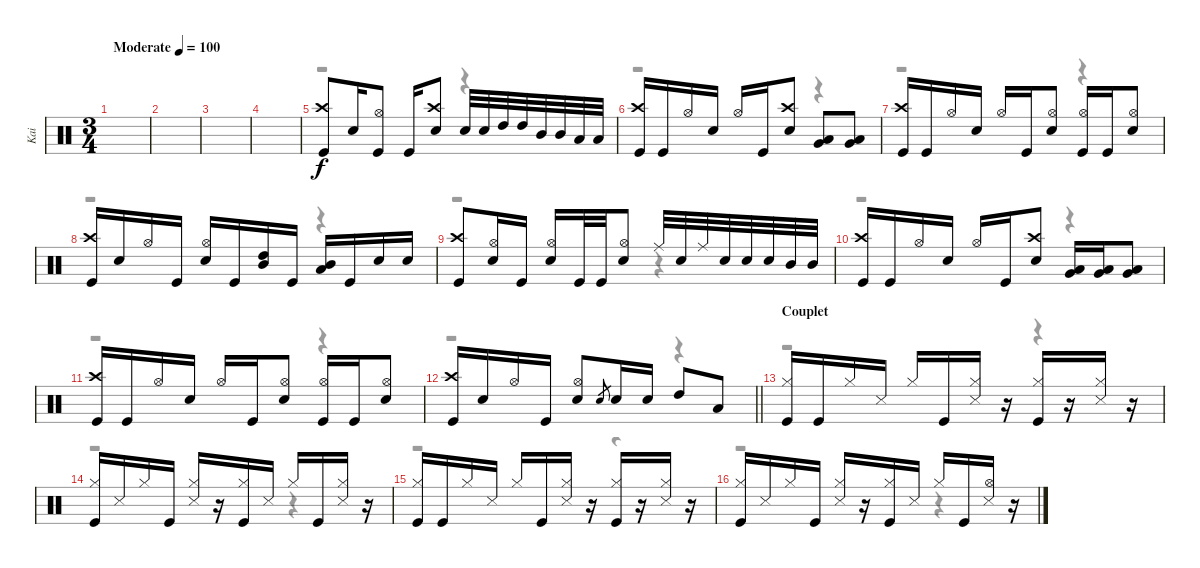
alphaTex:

\track ("Kai" "Kai") {instrument percussion}
\staff {score}
\articulation defaults
\voice
\ts (3 4)
\tempo (100 "Moderate")
\clef neutral
\ks c
|
|
|
|
("Crash high (hit)" "Kick (hit)").8 "Snare (hit) 2".16 ("Hi-Hat (open)" "Kick (hit)").8 "Kick (hit)".16 ("Crash high (hit)" "Snare (hit) 2").8 "Snare (hit) 2".32 "Snare (hit) 2".32 "High Tom (hit)".32 "High Tom (hit)".32 "Mid Tom (hit)".32 "Mid Tom (hit)".32 "Low Tom (hit)".32 "Low Tom (hit)".32 |
("Crash high (hit)" "Kick (hit)").16 "Kick (hit)".16 "Hi-Hat (open)".16 "Snare (hit) 2".16 "Hi-Hat (open)".16 "Kick (hit)".16 ("Crash high (hit)" "Snare (hit) 2").8 ("Low Tom (hit)" "Very Low Tom (hit)").8 ("Low Tom (hit)" "Very Low Tom (hit)").8 |
("Crash high (hit)" "Kick (hit)").16 "Kick (hit)".16 "Hi-Hat (open)".16 "Snare (hit) 2".16 "Hi-Hat (open)".16 "Kick (hit)".16 ("Hi-Hat (open)" "Snare (hit) 2").8 ("Hi-Hat (open)" "Kick (hit)").16 "Kick (hit)".16 ("Hi-Hat (open)" "Snare (hit) 2").8 |
("Crash high (hit)" "Kick (hit)").16 "Snare (hit) 2".16 "Hi-Hat (open)".16 "Kick (hit)".16 ("Hi-Hat (open)" "Snare (hit) 2").16 "Kick (hit)".16 ("Mid Tom (hit)" "High Tom (hit)").16 "Kick (hit)".16 ("Low Tom (hit)" "Mid Tom (hit)").16 "Kick (hit)".16 "Snare (hit) 2".16 "Snare (hit) 2".16 |
("Crash high (hit)" "Kick (hit)").8 ("Hi-Hat (open)" "Snare (hit) 2").16 "Kick (hit)".16 ("Snare (hit) 2" "Hi-Hat (open)").16 "Kick (hit)".32 "Kick (hit)".32 ("Hi-Hat (open)" "Snare (hit) 2").8 "Ride (middle)".32 "Snare (hit) 2".32 "Ride (middle)".32 "Snare (hit) 2".32 "Snare (hit) 2".32 "Snare (hit) 2".32 "Mid Tom (hit)".32 "Mid Tom (hit)".32 |
("Crash high (hit)" "Kick (hit)").16 "Kick (hit)".16 "Hi-Hat (open)".16 "Snare (hit) 2".16 "Hi-Hat (open)".16 "Kick (hit)".16 ("Crash high (hit)" "Snare (hit) 2").8 ("Low Tom (hit)" "Very Low Tom (hit)").16 ("Low Tom (hit)" "Very Low Tom (hit)").16 ("Low Tom (hit)" "Very Low Tom (hit)").8 |
("Crash high (hit)" "Kick (hit)").16 "Kick (hit)".16 "Hi-Hat (open)".16 "Snare (hit) 2".16 "Hi-Hat (open)".16 "Kick (hit)".16 ("Hi-Hat (open)" "Snare (hit) 2").8 ("Hi-Hat (open)" "Kick (hit)").16 "Kick (hit)".16 ("Hi-Hat (open)" "Snare (hit) 2").8 |
\barLineRight lightlight
("Crash high (hit)" "Kick (hit)").16 "Snare (hit) 2".16 "Hi-Hat (open)".16 "Kick (hit)".16 ("Hi-Hat (open)" "Snare (hit) 2").8 "Snare (hit) 2".8{gr} "Snare (hit) 2".16 "Snare (hit) 2".16 "High Tom (hit)".8 "Low Tom (hit)".8 |
\section ("" "Couplet")
("Hi-Hat (closed)" "Kick (hit)").16 "Kick (hit)".16 "Hi-Hat (closed)".16 "Snare (side stick) 3".16 "Hi-Hat (closed)".16 "Kick (hit)".16 ("Hi-Hat (closed)" "Snare (side stick) 3").16 r.16 ("Hi-Hat (closed)" "Kick (hit)").16 r.16 ("Hi-Hat (closed)" "Snare (side stick) 3").16 r.16 |
("Hi-Hat (closed)" "Kick (hit)").16 "Snare (side stick) 3".16 "Hi-Hat (closed)".16 "Kick (hit)".16 ("Hi-Hat (closed)" "Snare (side stick) 3").16 r.16 ("Hi-Hat (closed)" "Kick (hit)").16 "Snare (side stick) 3".16 "Hi-Hat (closed)".16 "Kick (hit)".16 ("Hi-Hat (closed)" "Snare (side stick) 3").16 r.16 |
("Hi-Hat (closed)" "Kick (hit)").16 "Kick (hit)".16 "Hi-Hat (closed)".16 "Snare (side stick) 3".16 "Hi-Hat (closed)".16 "Kick (hit)".16 ("Hi-Hat (closed)" "Snare (side stick) 3").16 r.16 ("Hi-Hat (closed)" "Kick (hit)").16 r.16 ("Hi-Hat (closed)" "Snare (side stick) 3").16 r.16 |
("Hi-Hat (closed)" "Kick (hit)").16 "Snare (side stick) 3".16 "Hi-Hat (closed)".16 "Kick (hit)".16 ("Hi-Hat (closed)" "Snare (side stick) 3").16 r.16 ("Hi-Hat (closed)" "Kick (hit)").16 "Snare (side stick) 3".16 "Hi-Hat (closed)".16 "Kick (hit)".16 ("Hi-Hat (open)" "Snare (side stick) 3").16 r.16
\voice
\clef neutral
\ottava regular
\simile none
\ks c
|
|
|
|
r.2 r.4 |
r.2 r.4 |
r.2 r.4 |
r.2 r.4 |
r.2 r.4 |
r.2 r.4 |
r.2 r.4 |
\barLineRight lightlight
r.2 r.4 |
r.2 r.4 |
r.2 r.4 |
r.2 r.4 |
r.2 r.4
